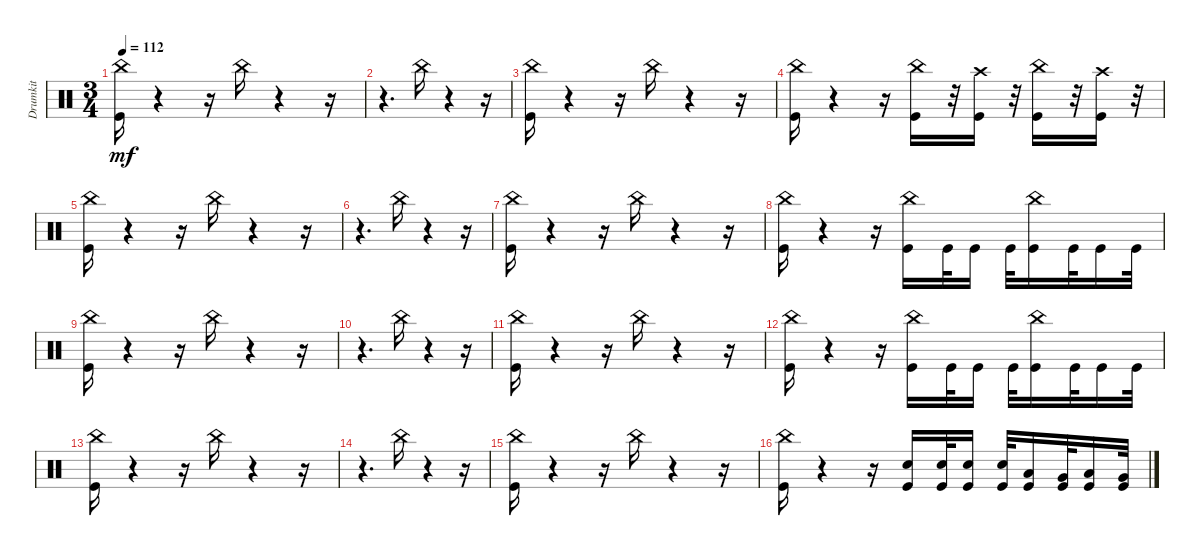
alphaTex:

\track ("Drumkit" "Drumkit") {instrument percussion}
\staff {score}
\articulation defaults
\ts (3 4)
\tempo 112
\clef neutral
\ks c
("China (hit)" "Kick (hit)").16{dy mf} r.4 r.16 "China (hit)".16 r.4 r.16 |
r.4{d} "China (hit)".16 r.4 r.16 |
("China (hit)" "Kick (hit)").16 r.4 r.16 "China (hit)".16 r.4 r.16 |
("China (hit)" "Kick (hit)").16 r.4 r.16 ("China (hit)" "Kick (hit)").16 r.32 ("Kick (hit)" "Crash high (hit)").16 r.32 ("China (hit)" "Kick (hit)").16 r.32 ("Kick (hit)" "Crash high (hit)").16 r.32 |
("China (hit)" "Kick (hit)").16 r.4 r.16 "China (hit)".16 r.4 r.16 |
r.4{d} "China (hit)".16 r.4 r.16 |
("China (hit)" "Kick (hit)").16 r.4 r.16 "China (hit)".16 r.4 r.16 |
("China (hit)" "Kick (hit)").16 r.4 r.16 ("China (hit)" "Kick (hit)").16 "Kick (hit)".32 "Kick (hit)".16 "Kick (hit)".32 ("China (hit)" "Kick (hit)").16 "Kick (hit)".32 "Kick (hit)".16 "Kick (hit)".32 |
("China (hit)" "Kick (hit)").16 r.4 r.16 "China (hit)".16 r.4 r.16 |
r.4{d} "China (hit)".16 r.4 r.16 |
("China (hit)" "Kick (hit)").16 r.4 r.16 "China (hit)".16 r.4 r.16 |
("China (hit)" "Kick (hit)").16 r.4 r.16 ("China (hit)" "Kick (hit)").16 "Kick (hit)".32 "Kick (hit)".16 "Kick (hit)".32 ("China (hit)" "Kick (hit)").16 "Kick (hit)".32 "Kick (hit)".16 "Kick (hit)".32 |
("China (hit)" "Kick (hit)").16 r.4 r.16 "China (hit)".16 r.4 r.16 |
r.4{d} "China (hit)".16 r.4 r.16 |
("China (hit)" "Kick (hit)").16 r.4 r.16 "China (hit)".16 r.4 r.16 |
("China (hit)" "Kick (hit)").16 r.4 r.16 ("Snare (hit) 2" "Kick (hit)").16 ("Snare (hit) 2" "Kick (hit)").32 ("Snare (hit) 2" "Kick (hit)").16 ("Snare (hit) 2" "Kick (hit)").32 ("Low Tom (hit)" "Kick (hit)").16 ("Very Low Tom (hit)" "Kick (hit)").32 ("Low Tom (hit)" "Kick (hit)").16 ("Very Low Tom (hit)" "Kick (hit)").32
